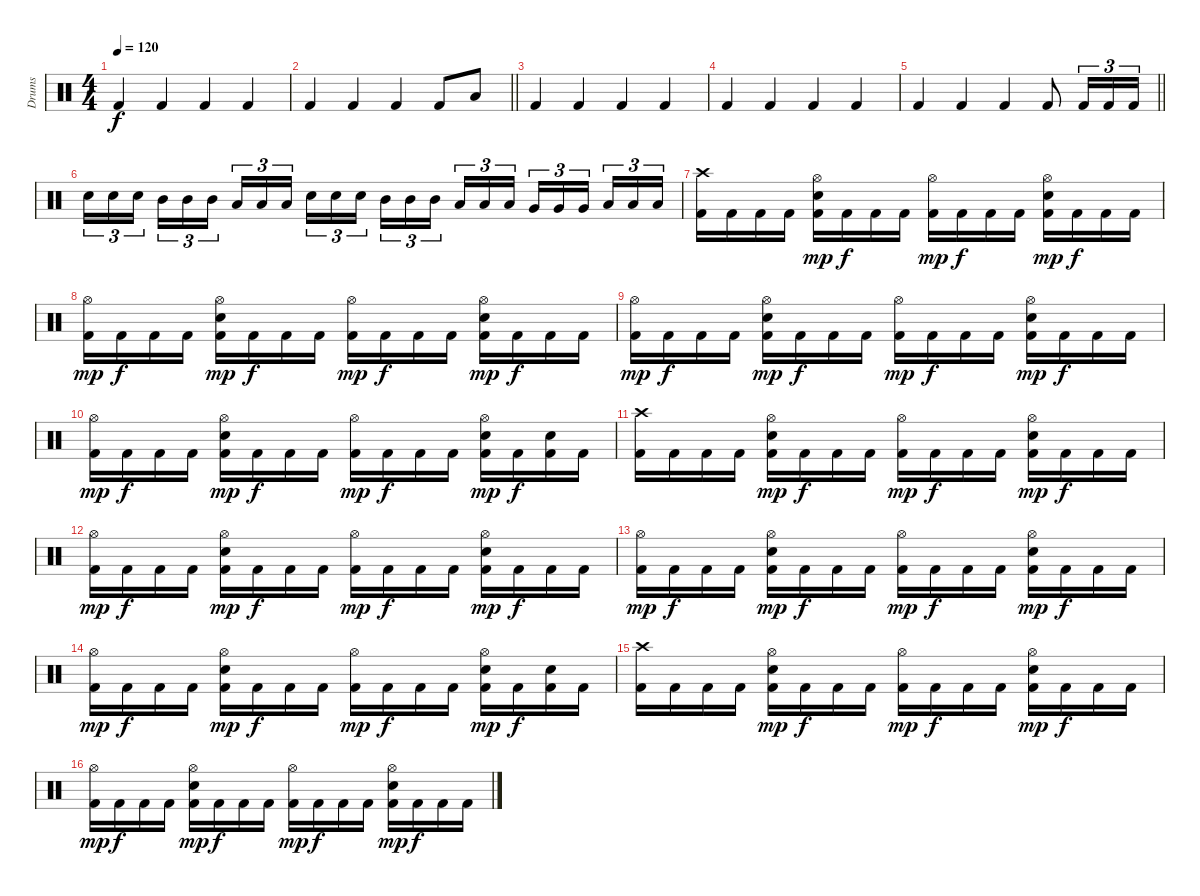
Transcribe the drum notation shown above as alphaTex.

\track ("Drums" "Drums") {instrument percussion}
\staff {score}
\articulation defaults
\ts (4 4)
\tempo 120
\clef neutral
\ks c "Kick (hit) 2".4{dy f} "Kick (hit) 2".4 "Kick (hit) 2".4 "Kick (hit) 2".4
|
\barLineRight lightlight "Kick (hit) 2".4 "Kick (hit) 2".4 "Kick (hit) 2".4 "Kick (hit) 2".8 "Low Tom (hit)".8
|
"Kick (hit) 2".4 "Kick (hit) 2".4 "Kick (hit) 2".4 "Kick (hit) 2".4 |
"Kick (hit) 2".4 "Kick (hit) 2".4 "Kick (hit) 2".4 "Kick (hit) 2".4 |
\barLineRight lightlight "Kick (hit) 2".4 "Kick (hit) 2".4 "Kick (hit) 2".4 "Kick (hit) 2".8 "Kick (hit) 2".16{tu (3 2)} "Kick (hit) 2".16{tu (3 2)} "Kick (hit) 2".16{tu (3 2)}
|
\section ("" "")
"Snare (hit) 2".16{tu (3 2)} "Snare (hit) 2".16{tu (3 2)} "Snare (hit) 2".16{tu (3 2) beam splitsecondary} "Mid Tom (hit)".16{tu (3 2)} "Mid Tom (hit)".16{tu (3 2)} "Mid Tom (hit)".16{tu (3 2)} "Low Tom (hit)".16{tu (3 2)} "Low Tom (hit)".16{tu (3 2)} "Low Tom (hit)".16{tu (3 2) beam splitsecondary} "Snare (hit) 2".16{tu (3 2)} "Snare (hit) 2".16{tu (3 2)} "Snare (hit) 2".16{tu (3 2)} "Mid Tom (hit)".16{tu (3 2)} "Mid Tom (hit)".16{tu (3 2)} "Mid Tom (hit)".16{tu (3 2) beam splitsecondary} "Low Tom (hit)".16{tu (3 2)} "Low Tom (hit)".16{tu (3 2)} "Low Tom (hit)".16{tu (3 2)} "Very Low Tom (hit)".16{tu (3 2)} "Very Low Tom (hit)".16{tu (3 2)} "Very Low Tom (hit)".16{tu (3 2) beam splitsecondary} "Low Floor Tom (hit)".16{tu (3 2)} "Low Floor Tom (hit)".16{tu (3 2)} "Low Floor Tom (hit)".16{tu (3 2)} |
("Crash high (hit)" "Kick (hit) 2").16 "Kick (hit) 2".16 "Kick (hit) 2".16 "Kick (hit) 2".16 ("Hi-Hat (open)" "Snare (hit) 2" "Kick (hit) 2").16{dy mp} "Kick (hit) 2".16{dy f} "Kick (hit) 2".16 "Kick (hit) 2".16 ("Hi-Hat (open)" "Kick (hit) 2").16{dy mp} "Kick (hit) 2".16{dy f} "Kick (hit) 2".16 "Kick (hit) 2".16 ("Hi-Hat (open)" "Snare (hit) 2" "Kick (hit) 2").16{dy mp} "Kick (hit) 2".16{dy f} "Kick (hit) 2".16 "Kick (hit) 2".16 |
("Hi-Hat (open)" "Kick (hit) 2").16{dy mp} "Kick (hit) 2".16{dy f} "Kick (hit) 2".16 "Kick (hit) 2".16 ("Hi-Hat (open)" "Snare (hit) 2" "Kick (hit) 2").16{dy mp} "Kick (hit) 2".16{dy f} "Kick (hit) 2".16 "Kick (hit) 2".16 ("Hi-Hat (open)" "Kick (hit) 2").16{dy mp} "Kick (hit) 2".16{dy f} "Kick (hit) 2".16 "Kick (hit) 2".16 ("Hi-Hat (open)" "Snare (hit) 2" "Kick (hit) 2").16{dy mp} "Kick (hit) 2".16{dy f} "Kick (hit) 2".16 "Kick (hit) 2".16 |
("Hi-Hat (open)" "Kick (hit) 2").16{dy mp} "Kick (hit) 2".16{dy f} "Kick (hit) 2".16 "Kick (hit) 2".16 ("Hi-Hat (open)" "Snare (hit) 2" "Kick (hit) 2").16{dy mp} "Kick (hit) 2".16{dy f} "Kick (hit) 2".16 "Kick (hit) 2".16 ("Hi-Hat (open)" "Kick (hit) 2").16{dy mp} "Kick (hit) 2".16{dy f} "Kick (hit) 2".16 "Kick (hit) 2".16 ("Hi-Hat (open)" "Snare (hit) 2" "Kick (hit) 2").16{dy mp} "Kick (hit) 2".16{dy f} "Kick (hit) 2".16 "Kick (hit) 2".16 |
("Hi-Hat (open)" "Kick (hit) 2").16{dy mp} "Kick (hit) 2".16{dy f} "Kick (hit) 2".16 "Kick (hit) 2".16 ("Hi-Hat (open)" "Snare (hit) 2" "Kick (hit) 2").16{dy mp} "Kick (hit) 2".16{dy f} "Kick (hit) 2".16 "Kick (hit) 2".16 ("Hi-Hat (open)" "Kick (hit) 2").16{dy mp} "Kick (hit) 2".16{dy f} "Kick (hit) 2".16 "Kick (hit) 2".16 ("Hi-Hat (open)" "Snare (hit) 2" "Kick (hit) 2").16{dy mp} "Kick (hit) 2".16{dy f} ("Snare (hit) 2" "Kick (hit) 2").16 "Kick (hit) 2".16 |
("Crash high (hit)" "Kick (hit) 2").16 "Kick (hit) 2".16 "Kick (hit) 2".16 "Kick (hit) 2".16 ("Hi-Hat (open)" "Snare (hit) 2" "Kick (hit) 2").16{dy mp} "Kick (hit) 2".16{dy f} "Kick (hit) 2".16 "Kick (hit) 2".16 ("Hi-Hat (open)" "Kick (hit) 2").16{dy mp} "Kick (hit) 2".16{dy f} "Kick (hit) 2".16 "Kick (hit) 2".16 ("Hi-Hat (open)" "Snare (hit) 2" "Kick (hit) 2").16{dy mp} "Kick (hit) 2".16{dy f} "Kick (hit) 2".16 "Kick (hit) 2".16 |
("Hi-Hat (open)" "Kick (hit) 2").16{dy mp} "Kick (hit) 2".16{dy f} "Kick (hit) 2".16 "Kick (hit) 2".16 ("Hi-Hat (open)" "Snare (hit) 2" "Kick (hit) 2").16{dy mp} "Kick (hit) 2".16{dy f} "Kick (hit) 2".16 "Kick (hit) 2".16 ("Hi-Hat (open)" "Kick (hit) 2").16{dy mp} "Kick (hit) 2".16{dy f} "Kick (hit) 2".16 "Kick (hit) 2".16 ("Hi-Hat (open)" "Snare (hit) 2" "Kick (hit) 2").16{dy mp} "Kick (hit) 2".16{dy f} "Kick (hit) 2".16 "Kick (hit) 2".16 |
("Hi-Hat (open)" "Kick (hit) 2").16{dy mp} "Kick (hit) 2".16{dy f} "Kick (hit) 2".16 "Kick (hit) 2".16 ("Hi-Hat (open)" "Snare (hit) 2" "Kick (hit) 2").16{dy mp} "Kick (hit) 2".16{dy f} "Kick (hit) 2".16 "Kick (hit) 2".16 ("Hi-Hat (open)" "Kick (hit) 2").16{dy mp} "Kick (hit) 2".16{dy f} "Kick (hit) 2".16 "Kick (hit) 2".16 ("Hi-Hat (open)" "Snare (hit) 2" "Kick (hit) 2").16{dy mp} "Kick (hit) 2".16{dy f} "Kick (hit) 2".16 "Kick (hit) 2".16 |
("Hi-Hat (open)" "Kick (hit) 2").16{dy mp} "Kick (hit) 2".16{dy f} "Kick (hit) 2".16 "Kick (hit) 2".16 ("Hi-Hat (open)" "Snare (hit) 2" "Kick (hit) 2").16{dy mp} "Kick (hit) 2".16{dy f} "Kick (hit) 2".16 "Kick (hit) 2".16 ("Hi-Hat (open)" "Kick (hit) 2").16{dy mp} "Kick (hit) 2".16{dy f} "Kick (hit) 2".16 "Kick (hit) 2".16 ("Hi-Hat (open)" "Snare (hit) 2" "Kick (hit) 2").16{dy mp} "Kick (hit) 2".16{dy f} ("Snare (hit) 2" "Kick (hit) 2").16 "Kick (hit) 2".16 |
("Crash high (hit)" "Kick (hit) 2").16 "Kick (hit) 2".16 "Kick (hit) 2".16 "Kick (hit) 2".16 ("Hi-Hat (open)" "Snare (hit) 2" "Kick (hit) 2").16{dy mp} "Kick (hit) 2".16{dy f} "Kick (hit) 2".16 "Kick (hit) 2".16 ("Hi-Hat (open)" "Kick (hit) 2").16{dy mp} "Kick (hit) 2".16{dy f} "Kick (hit) 2".16 "Kick (hit) 2".16 ("Hi-Hat (open)" "Snare (hit) 2" "Kick (hit) 2").16{dy mp} "Kick (hit) 2".16{dy f} "Kick (hit) 2".16 "Kick (hit) 2".16 |
("Hi-Hat (open)" "Kick (hit) 2").16{dy mp} "Kick (hit) 2".16{dy f} "Kick (hit) 2".16 "Kick (hit) 2".16 ("Hi-Hat (open)" "Snare (hit) 2" "Kick (hit) 2").16{dy mp} "Kick (hit) 2".16{dy f} "Kick (hit) 2".16 "Kick (hit) 2".16 ("Hi-Hat (open)" "Kick (hit) 2").16{dy mp} "Kick (hit) 2".16{dy f} "Kick (hit) 2".16 "Kick (hit) 2".16 ("Hi-Hat (open)" "Snare (hit) 2" "Kick (hit) 2").16{dy mp} "Kick (hit) 2".16{dy f} "Kick (hit) 2".16 "Kick (hit) 2".16
